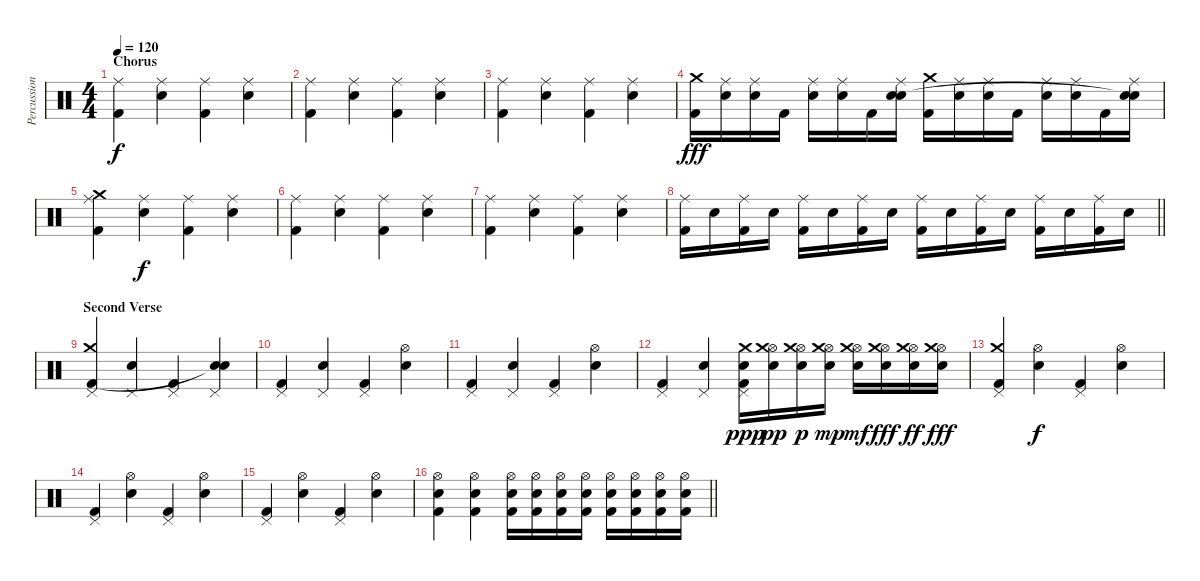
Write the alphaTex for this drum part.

\track ("Percussion" "Percussion") {instrument percussion}
\staff {score}
\articulation defaults
\ts (4 4)
\section ("" "Chorus")
\tempo 120
\clef neutral
\ks c
("Ride (middle)" "Kick (hit) 2").4{dy f} ("Ride (middle)" "Snare (hit) 2").4 ("Ride (middle)" "Kick (hit) 2").4 ("Ride (middle)" "Snare (hit) 2").4 |
("Ride (middle)" "Kick (hit) 2").4 ("Ride (middle)" "Snare (hit) 2").4 ("Ride (middle)" "Kick (hit) 2").4 ("Ride (middle)" "Snare (hit) 2").4 |
("Ride (middle)" "Kick (hit) 2").4 ("Ride (middle)" "Snare (hit) 2").4 ("Ride (middle)" "Kick (hit) 2").4 ("Ride (middle)" "Snare (hit) 2").4 |
("Crash medium (hit)" "Kick (hit) 2").16{dy fff} ("Ride (middle)" "Snare (hit) 2").16 ("Ride (middle)" "Snare (hit) 2").16 "Kick (hit) 2".16 ("Ride (middle)" "Snare (hit) 2").16 ("Ride (middle)" "Snare (hit) 2").16 "Kick (hit) 2".16 ("Ride (middle)" "Snare (hit) 2" "Snare (hit)").16 ("Crash medium (hit)" "Kick (hit) 2").16 ("Ride (middle)" "Snare (hit) 2").16 ("Ride (middle)" "Snare (hit) 2").16 "Kick (hit) 2".16 ("Ride (middle)" "Snare (hit) 2").16 ("Ride (middle)" "Snare (hit) 2").16 "Kick (hit) 2".16 ("Ride (middle)" "Snare (hit) 2" "Snare (hit)"{t}).16 |
("Ride (middle)" "Crash medium (hit)" "Kick (hit) 2").4 ("Ride (middle)" "Snare (hit) 2").4{dy f} ("Ride (middle)" "Kick (hit) 2").4 ("Ride (middle)" "Snare (hit) 2").4 |
("Ride (middle)" "Kick (hit) 2").4 ("Ride (middle)" "Snare (hit) 2").4 ("Ride (middle)" "Kick (hit) 2").4 ("Ride (middle)" "Snare (hit) 2").4 |
("Ride (middle)" "Kick (hit) 2").4 ("Ride (middle)" "Snare (hit) 2").4 ("Ride (middle)" "Kick (hit) 2").4 ("Ride (middle)" "Snare (hit) 2").4 |
\barLineRight lightlight
("Ride (middle)" "Kick (hit) 2").16 "Snare (hit) 2".16 ("Ride (middle)" "Kick (hit) 2").16 "Snare (hit) 2".16 ("Ride (middle)" "Kick (hit) 2").16 "Snare (hit) 2".16 ("Ride (middle)" "Kick (hit) 2").16 "Snare (hit) 2".16 ("Ride (middle)" "Kick (hit) 2").16 "Snare (hit) 2".16 ("Ride (middle)" "Kick (hit) 2").16 "Snare (hit) 2".16 ("Ride (middle)" "Kick (hit) 2").16 "Snare (hit) 2".16 ("Ride (middle)" "Kick (hit) 2").16 "Snare (hit) 2".16 |
\section ("" "Second Verse")
("Pedal Hi-Hat (hit)" "Crash medium (hit)" "Kick (hit) 2").4 ("Snare (hit) 2" "Pedal Hi-Hat (hit)").4 ("Pedal Hi-Hat (hit)" "Kick (hit) 2").4 ("Snare (hit) 2" "Pedal Hi-Hat (hit)" "Snare (hit)"{t}).4 |
("Pedal Hi-Hat (hit)" "Kick (hit) 2").4 ("Pedal Hi-Hat (hit)" "Snare (hit) 2").4 ("Pedal Hi-Hat (hit)" "Kick (hit) 2").4 ("Hi-Hat (open)" "Snare (hit) 2").4 |
("Pedal Hi-Hat (hit)" "Kick (hit) 2").4 ("Pedal Hi-Hat (hit)" "Snare (hit) 2").4 ("Pedal Hi-Hat (hit)" "Kick (hit) 2").4 ("Hi-Hat (open)" "Snare (hit) 2").4 |
("Pedal Hi-Hat (hit)" "Kick (hit) 2").4 ("Pedal Hi-Hat (hit)" "Snare (hit) 2").4 ("Pedal Hi-Hat (hit)" "Snare (hit) 2" "Crash medium (hit)" "Kick (hit) 2").16{dy ppp} ("Hi-Hat (open)" "Snare (hit) 2" "Crash medium (hit)").16{dy pp} ("Hi-Hat (open)" "Snare (hit) 2" "Crash medium (hit)").16{dy p} ("Hi-Hat (open)" "Snare (hit) 2" "Crash medium (hit)").16{dy mp} ("Hi-Hat (open)" "Snare (hit) 2" "Crash medium (hit)").16{dy mf} ("Hi-Hat (open)" "Snare (hit) 2" "Crash medium (hit)").16{dy fff} ("Hi-Hat (open)" "Snare (hit) 2" "Crash medium (hit)").16{dy ff} ("Hi-Hat (open)" "Snare (hit) 2" "Crash medium (hit)").16{dy fff} |
("Pedal Hi-Hat (hit)" "Crash medium (hit)" "Kick (hit) 2").4 ("Hi-Hat (open)" "Snare (hit) 2").4{dy f} ("Pedal Hi-Hat (hit)" "Kick (hit) 2").4 ("Hi-Hat (open)" "Snare (hit) 2").4 |
("Pedal Hi-Hat (hit)" "Kick (hit) 2").4 ("Hi-Hat (open)" "Snare (hit) 2").4 ("Pedal Hi-Hat (hit)" "Kick (hit) 2").4 ("Hi-Hat (open)" "Snare (hit) 2").4 |
("Pedal Hi-Hat (hit)" "Kick (hit) 2").4 ("Hi-Hat (open)" "Snare (hit) 2").4 ("Pedal Hi-Hat (hit)" "Kick (hit) 2").4 ("Hi-Hat (open)" "Snare (hit) 2").4 |
\barLineRight lightlight
("Hi-Hat (open)" "Snare (hit) 2" "Kick (hit) 2").4 ("Hi-Hat (open)" "Snare (hit) 2" "Kick (hit) 2").4 ("Hi-Hat (open)" "Snare (hit) 2" "Kick (hit) 2").16 ("Hi-Hat (open)" "Snare (hit) 2" "Kick (hit) 2").16 ("Hi-Hat (open)" "Snare (hit) 2" "Kick (hit) 2").16 ("Hi-Hat (open)" "Snare (hit) 2" "Kick (hit) 2").16 ("Hi-Hat (open)" "Snare (hit) 2" "Kick (hit) 2").16 ("Hi-Hat (open)" "Snare (hit) 2" "Kick (hit) 2").16 ("Hi-Hat (open)" "Snare (hit) 2" "Kick (hit) 2").16 ("Hi-Hat (open)" "Snare (hit) 2" "Kick (hit) 2").16
